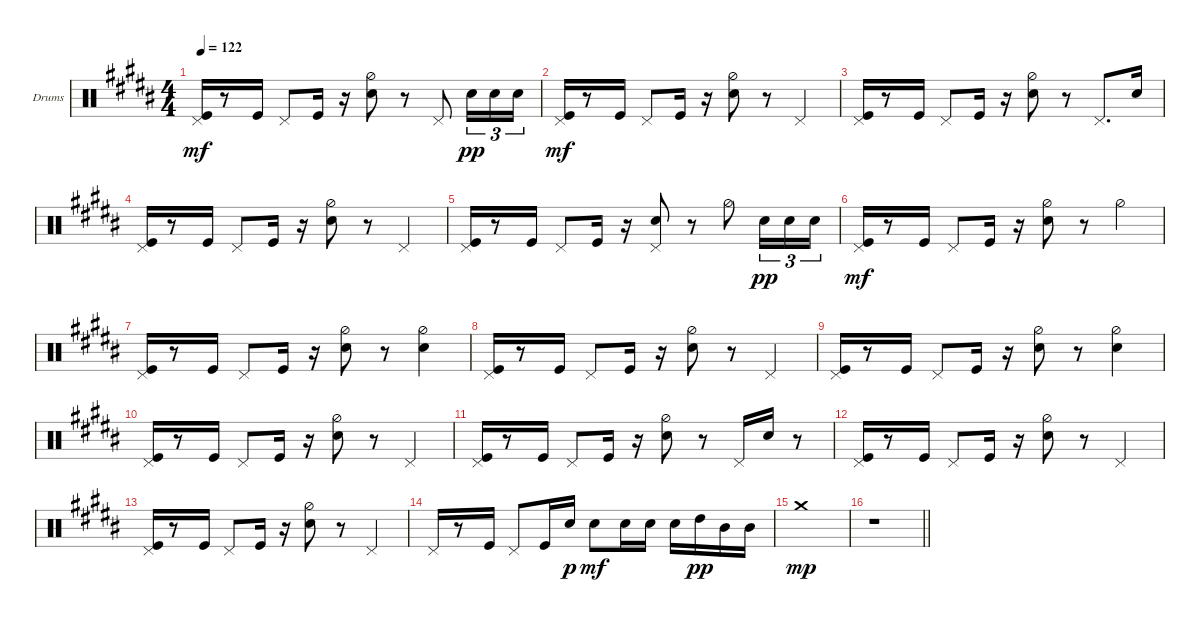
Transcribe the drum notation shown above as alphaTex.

\defaultSystemsLayout 4
\bracketExtendMode groupsimilarinstruments
\firstSystemTrackNameOrientation horizontal
\otherSystemsTrackNameOrientation horizontal
\track ("Drumkit" "Drums") {multiBarRest instrument percussion}
\staff {score}
\articulation defaults
\ts (4 4)
\tempo 122
\clef neutral
\ks b
("Kick (hit)" "Pedal Hi-Hat (hit)").16{dy mf} r.8 "Kick (hit)".16 "Pedal Hi-Hat (hit)".8 "Kick (hit)".16 r.16 ("Snare (hit) 2" "Hi-Hat (half)").8 r.8 "Pedal Hi-Hat (hit)".8 "Snare (hit) 2".16{tu (3 2) dy pp} "Snare (hit) 2".16{tu (3 2)} "Snare (hit) 2".16{tu (3 2)} |
("Kick (hit)" "Pedal Hi-Hat (hit)").16{dy mf} r.8 "Kick (hit)".16 "Pedal Hi-Hat (hit)".8 "Kick (hit)".16 r.16 ("Snare (hit) 2" "Hi-Hat (half)").8 r.8 "Pedal Hi-Hat (hit)".4 |
("Kick (hit)" "Pedal Hi-Hat (hit)").16 r.8 "Kick (hit)".16 "Pedal Hi-Hat (hit)".8 "Kick (hit)".16 r.16 ("Snare (hit) 2" "Hi-Hat (half)").8 r.8 "Pedal Hi-Hat (hit)".8{d} "Snare (hit) 2".16 |
("Kick (hit)" "Pedal Hi-Hat (hit)").16 r.8 "Kick (hit)".16 "Pedal Hi-Hat (hit)".8 "Kick (hit)".16 r.16 ("Snare (hit) 2" "Hi-Hat (half)").8 r.8 "Pedal Hi-Hat (hit)".4 |
("Kick (hit)" "Pedal Hi-Hat (hit)").16 r.8 "Kick (hit)".16 "Pedal Hi-Hat (hit)".8 "Kick (hit)".16 r.16 ("Snare (hit) 2" "Pedal Hi-Hat (hit)").8 r.8 "Hi-Hat (half)".8 "Snare (hit) 2".16{tu (3 2) dy pp} "Snare (hit) 2".16{tu (3 2)} "Snare (hit) 2".16{tu (3 2)} |
("Kick (hit)" "Pedal Hi-Hat (hit)").16{dy mf} r.8 "Kick (hit)".16 "Pedal Hi-Hat (hit)".8 "Kick (hit)".16 r.16 ("Snare (hit) 2" "Hi-Hat (half)").8 r.8 "Hi-Hat (half)".4 |
("Kick (hit)" "Pedal Hi-Hat (hit)").16 r.8 "Kick (hit)".16 "Pedal Hi-Hat (hit)".8 "Kick (hit)".16 r.16 ("Snare (hit) 2" "Hi-Hat (half)").8 r.8 ("Hi-Hat (half)" "Snare (hit) 2").4 |
("Kick (hit)" "Pedal Hi-Hat (hit)").16 r.8 "Kick (hit)".16 "Pedal Hi-Hat (hit)".8 "Kick (hit)".16 r.16 ("Snare (hit) 2" "Hi-Hat (half)").8 r.8 "Pedal Hi-Hat (hit)".4 |
("Kick (hit)" "Pedal Hi-Hat (hit)").16 r.8 "Kick (hit)".16 "Pedal Hi-Hat (hit)".8 "Kick (hit)".16 r.16 ("Snare (hit) 2" "Hi-Hat (half)").8 r.8 ("Hi-Hat (half)" "Snare (hit) 2").4 |
("Kick (hit)" "Pedal Hi-Hat (hit)").16 r.8 "Kick (hit)".16 "Pedal Hi-Hat (hit)".8 "Kick (hit)".16 r.16 ("Snare (hit) 2" "Hi-Hat (half)").8 r.8 "Pedal Hi-Hat (hit)".4 |
("Kick (hit)" "Pedal Hi-Hat (hit)").16 r.8 "Kick (hit)".16 "Pedal Hi-Hat (hit)".8 "Kick (hit)".16 r.16 ("Snare (hit) 2" "Hi-Hat (half)").8 r.8 "Pedal Hi-Hat (hit)".16 "Snare (hit) 2".16 r.8 |
("Kick (hit)" "Pedal Hi-Hat (hit)").16 r.8 "Kick (hit)".16 "Pedal Hi-Hat (hit)".8 "Kick (hit)".16 r.16 ("Snare (hit) 2" "Hi-Hat (half)").8 r.8 "Pedal Hi-Hat (hit)".4 |
("Kick (hit)" "Pedal Hi-Hat (hit)").16 r.8 "Kick (hit)".16 "Pedal Hi-Hat (hit)".8 "Kick (hit)".16 r.16 ("Snare (hit) 2" "Hi-Hat (half)").8 r.8 "Pedal Hi-Hat (hit)".4 |
"Pedal Hi-Hat (hit)".16 r.8 "Kick (hit)".16 "Pedal Hi-Hat (hit)".8 "Kick (hit)".16 "Snare (hit) 2".16{dy p} "Snare (hit) 2".8{dy mf} "Snare (hit) 2".16 "Snare (hit) 2".16 "Snare (hit) 2".16 "High Tom (hit)".16{dy pp} "Mid Tom (hit)".16 "Mid Tom (hit)".16 |
"Crash medium (hit)".1{dy mp} |
\barLineRight lightlight
r.1
